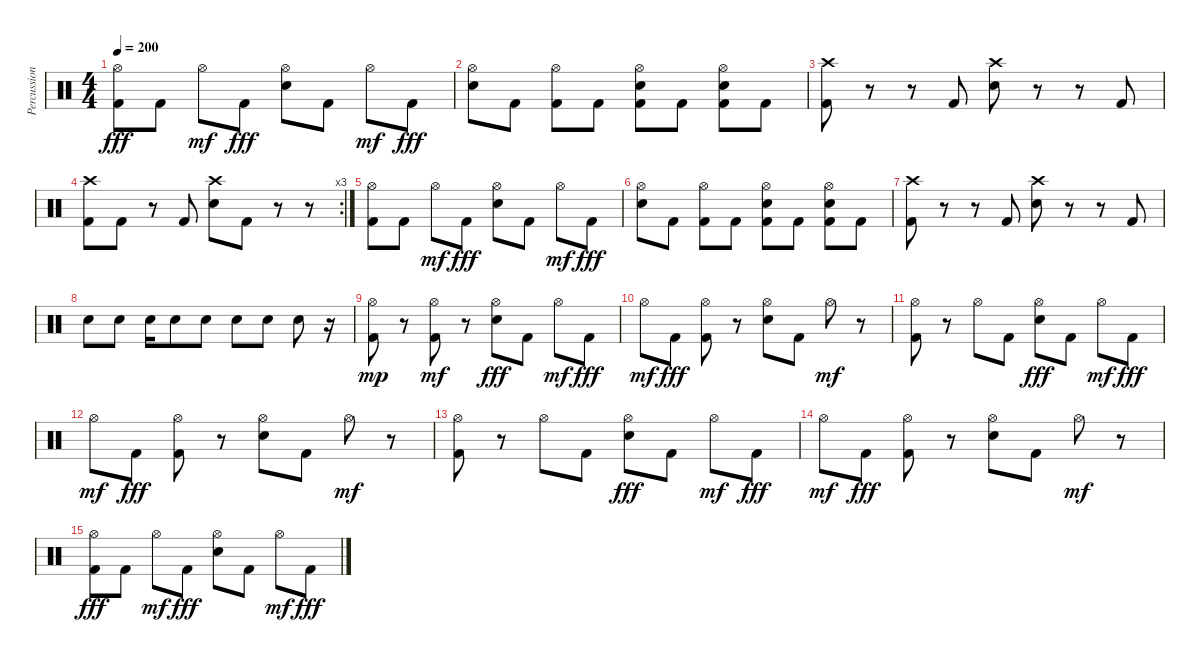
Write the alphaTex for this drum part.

\track ("Percussion" "Percussion") {instrument percussion}
\staff {score}
\articulation defaults
\ts (4 4)
\tempo 200
\clef neutral
\ks c
("Hi-Hat (open)" "Kick (hit) 2").8{dy fff} "Kick (hit) 2".8 "Hi-Hat (open)".8{dy mf} "Kick (hit) 2".8{dy fff} ("Hi-Hat (open)" "Electric Snare (hit)").8 "Kick (hit) 2".8 "Hi-Hat (open)".8{dy mf} "Kick (hit) 2".8{dy fff} |
("Hi-Hat (open)" "Electric Snare (hit)").8 "Kick (hit) 2".8 ("Hi-Hat (open)" "Kick (hit) 2").8 "Kick (hit) 2".8 ("Hi-Hat (open)" "Electric Snare (hit)" "Kick (hit) 2").8 "Kick (hit) 2".8 ("Hi-Hat (open)" "Electric Snare (hit)" "Kick (hit) 2").8 "Kick (hit) 2".8 |
("Crash high (hit)" "Kick (hit) 2").8 r.8 r.8 "Kick (hit) 2".8 ("Crash high (hit)" "Electric Snare (hit)").8 r.8 r.8 "Kick (hit) 2".8 |
\rc 3
("Crash high (hit)" "Kick (hit) 2").8 "Kick (hit) 2".8 r.8 "Kick (hit) 2".8 ("Crash high (hit)" "Electric Snare (hit)").8 "Kick (hit) 2".8 r.8 r.8 |
("Hi-Hat (open)" "Kick (hit) 2").8 "Kick (hit) 2".8 "Hi-Hat (open)".8{dy mf} "Kick (hit) 2".8{dy fff} ("Hi-Hat (open)" "Electric Snare (hit)").8 "Kick (hit) 2".8 "Hi-Hat (open)".8{dy mf} "Kick (hit) 2".8{dy fff} |
("Hi-Hat (open)" "Electric Snare (hit)").8 "Kick (hit) 2".8 ("Hi-Hat (open)" "Kick (hit) 2").8 "Kick (hit) 2".8 ("Hi-Hat (open)" "Electric Snare (hit)" "Kick (hit) 2").8 "Kick (hit) 2".8 ("Hi-Hat (open)" "Electric Snare (hit)" "Kick (hit) 2").8 "Kick (hit) 2".8 |
("Crash high (hit)" "Kick (hit) 2").8 r.8 r.8 "Kick (hit) 2".8 ("Crash high (hit)" "Electric Snare (hit)").8 r.8 r.8 "Kick (hit) 2".8 |
"Electric Snare (hit)".8 "Electric Snare (hit)".8 "Electric Snare (hit)".16 "Electric Snare (hit)".8 "Electric Snare (hit)".8 "Electric Snare (hit)".8 "Electric Snare (hit)".8 "Electric Snare (hit)".8 r.16 |
("Hi-Hat (open)" "Kick (hit) 2").8{dy mp} r.8 ("Hi-Hat (open)" "Kick (hit) 2").8{dy mf} r.8 ("Hi-Hat (open)" "Electric Snare (hit)").8{dy fff} "Kick (hit) 2".8 "Hi-Hat (open)".8{dy mf} "Kick (hit) 2".8{dy fff} |
"Hi-Hat (open)".8{dy mf} "Kick (hit) 2".8{dy fff} ("Hi-Hat (open)" "Kick (hit) 2").8 r.8 ("Hi-Hat (open)" "Electric Snare (hit)").8 "Kick (hit) 2".8 "Hi-Hat (open)".8{dy mf} r.8 |
("Hi-Hat (open)" "Kick (hit) 2").8 r.8 "Hi-Hat (open)".8 "Kick (hit) 2".8 ("Hi-Hat (open)" "Electric Snare (hit)").8{dy fff} "Kick (hit) 2".8 "Hi-Hat (open)".8{dy mf} "Kick (hit) 2".8{dy fff} |
"Hi-Hat (open)".8{dy mf} "Kick (hit) 2".8{dy fff} ("Hi-Hat (open)" "Kick (hit) 2").8 r.8 ("Hi-Hat (open)" "Electric Snare (hit)").8 "Kick (hit) 2".8 "Hi-Hat (open)".8{dy mf} r.8 |
("Hi-Hat (open)" "Kick (hit) 2").8 r.8 "Hi-Hat (open)".8 "Kick (hit) 2".8 ("Hi-Hat (open)" "Electric Snare (hit)").8{dy fff} "Kick (hit) 2".8 "Hi-Hat (open)".8{dy mf} "Kick (hit) 2".8{dy fff} |
"Hi-Hat (open)".8{dy mf} "Kick (hit) 2".8{dy fff} ("Hi-Hat (open)" "Kick (hit) 2").8 r.8 ("Hi-Hat (open)" "Electric Snare (hit)").8 "Kick (hit) 2".8 "Hi-Hat (open)".8{dy mf} r.8 |
("Hi-Hat (open)" "Kick (hit) 2").8{dy fff} "Kick (hit) 2".8 "Hi-Hat (open)".8{dy mf} "Kick (hit) 2".8{dy fff} ("Hi-Hat (open)" "Electric Snare (hit)").8 "Kick (hit) 2".8 "Hi-Hat (open)".8{dy mf} "Kick (hit) 2".8{dy fff}
